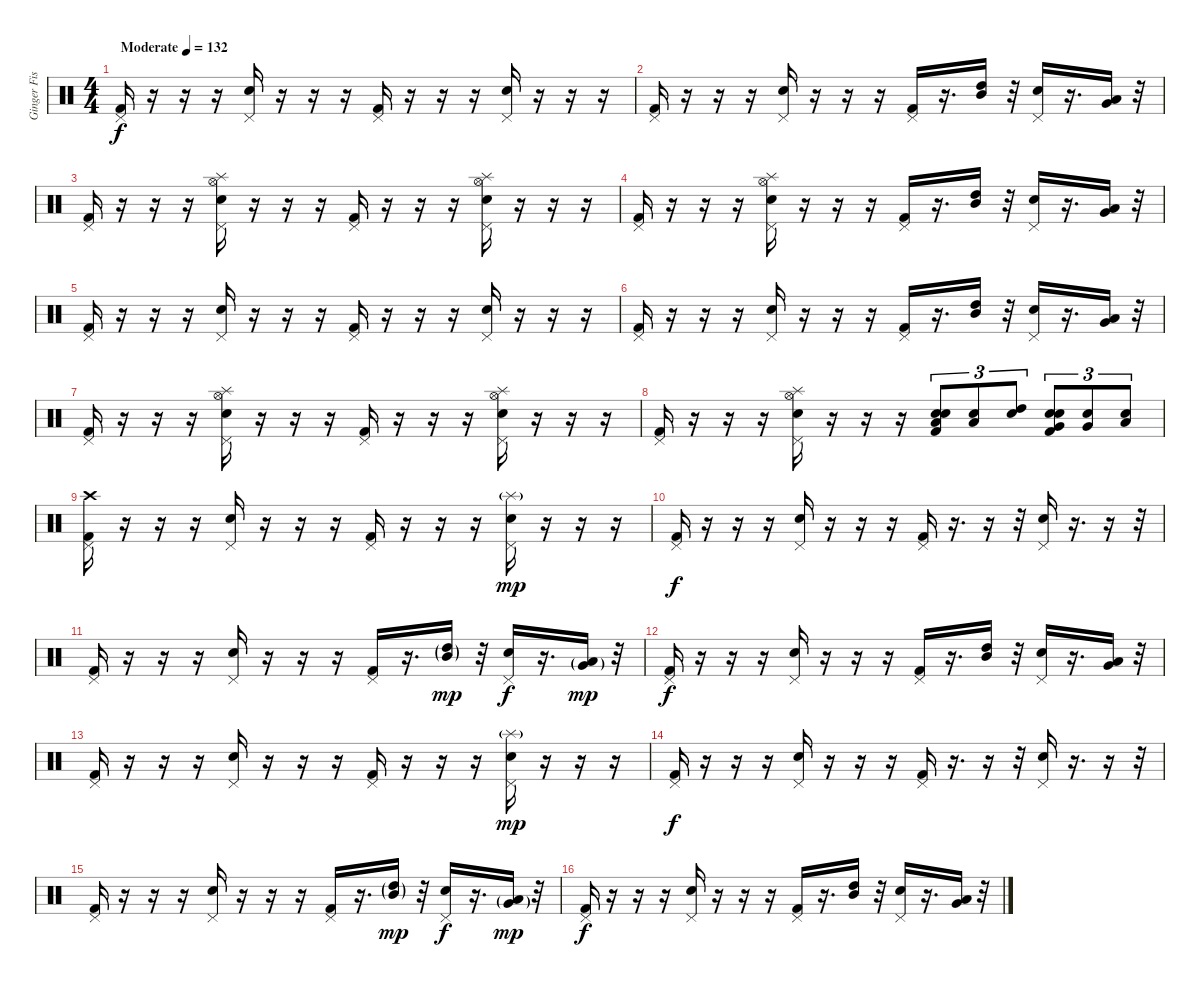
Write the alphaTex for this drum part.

\track ("Ginger Fish" "Ginger Fis") {instrument percussion}
\staff {score}
\articulation defaults
\ts (4 4)
\tempo (132 "Moderate")
\clef neutral
\ks c
("Pedal Hi-Hat (hit)" "Kick (hit) 2").16{dy f} r.16 r.16 r.16 ("Pedal Hi-Hat (hit)" "Snare (hit) 2").16 r.16 r.16 r.16 ("Pedal Hi-Hat (hit)" "Kick (hit) 2").16 r.16 r.16 r.16 ("Pedal Hi-Hat (hit)" "Snare (hit) 2").16 r.16 r.16 r.16 |
("Pedal Hi-Hat (hit)" "Kick (hit) 2").16 r.16 r.16 r.16 ("Pedal Hi-Hat (hit)" "Snare (hit) 2").16 r.16 r.16 r.16 ("Pedal Hi-Hat (hit)" "Kick (hit) 2").16 r.16{d} ("High Tom (hit)" "Mid Tom (hit)").16 r.32 ("Pedal Hi-Hat (hit)" "Snare (hit) 2").16 r.16{d} ("Very Low Tom (hit)" "Low Tom (hit)").16 r.32 |
("Pedal Hi-Hat (hit)" "Kick (hit) 2").16 r.16 r.16 r.16 ("Pedal Hi-Hat (hit)" "Splash (hit)" "Hi-Hat (open)" "Snare (hit) 2").16 r.16 r.16 r.16 ("Pedal Hi-Hat (hit)" "Kick (hit) 2").16 r.16 r.16 r.16 ("Pedal Hi-Hat (hit)" "Splash (hit)" "Hi-Hat (open)" "Snare (hit) 2").16 r.16 r.16 r.16 |
("Pedal Hi-Hat (hit)" "Kick (hit) 2").16 r.16 r.16 r.16 ("Pedal Hi-Hat (hit)" "Splash (hit)" "Hi-Hat (open)" "Snare (hit) 2").16 r.16 r.16 r.16 ("Pedal Hi-Hat (hit)" "Kick (hit) 2").16 r.16{d} ("High Tom (hit)" "Mid Tom (hit)").16 r.32 ("Pedal Hi-Hat (hit)" "Snare (hit) 2").16 r.16{d} ("Very Low Tom (hit)" "Low Tom (hit)").16 r.32 |
("Pedal Hi-Hat (hit)" "Kick (hit) 2").16 r.16 r.16 r.16 ("Pedal Hi-Hat (hit)" "Snare (hit) 2").16 r.16 r.16 r.16 ("Pedal Hi-Hat (hit)" "Kick (hit) 2").16 r.16 r.16 r.16 ("Pedal Hi-Hat (hit)" "Snare (hit) 2").16 r.16 r.16 r.16 |
("Pedal Hi-Hat (hit)" "Kick (hit) 2").16 r.16 r.16 r.16 ("Pedal Hi-Hat (hit)" "Snare (hit) 2").16 r.16 r.16 r.16 ("Pedal Hi-Hat (hit)" "Kick (hit) 2").16 r.16{d} ("High Tom (hit)" "Mid Tom (hit)").16 r.32 ("Pedal Hi-Hat (hit)" "Snare (hit) 2").16 r.16{d} ("Very Low Tom (hit)" "Low Tom (hit)").16 r.32 |
("Pedal Hi-Hat (hit)" "Kick (hit) 2").16 r.16 r.16 r.16 ("Pedal Hi-Hat (hit)" "Splash (hit)" "Hi-Hat (open)" "Snare (hit) 2").16 r.16 r.16 r.16 ("Pedal Hi-Hat (hit)" "Kick (hit) 2").16 r.16 r.16 r.16 ("Pedal Hi-Hat (hit)" "Splash (hit)" "Hi-Hat (open)" "Snare (hit) 2").16 r.16 r.16 r.16 |
("Pedal Hi-Hat (hit)" "Kick (hit) 2").16 r.16 r.16 r.16 ("Pedal Hi-Hat (hit)" "Splash (hit)" "Hi-Hat (open)" "Snare (hit) 2").16 r.16 r.16 r.16 ("Snare (hit) 2" "Low Tom (hit)" "Electric Snare (hit)" "Kick (hit) 2").8{tu (3 2)} ("Low Tom (hit)" "Electric Snare (hit)").8{tu (3 2)} ("High Tom (hit)" "Electric Snare (hit)").8{tu (3 2)} ("Snare (hit) 2" "Very Low Tom (hit)" "Electric Snare (hit)" "Kick (hit) 2").8{tu (3 2)} ("Very Low Tom (hit)" "Electric Snare (hit)").8{tu (3 2)} ("Low Floor Tom (hit)" "Electric Snare (hit)").8{tu (3 2)} |
("Pedal Hi-Hat (hit)" "Crash high (hit)" "Kick (hit) 2").16 r.16 r.16 r.16 ("Pedal Hi-Hat (hit)" "Snare (hit) 2").16 r.16 r.16 r.16 ("Pedal Hi-Hat (hit)" "Kick (hit) 2").16 r.16 r.16 r.16 ("Pedal Hi-Hat (hit)" "Splash (hit)"{g} "Snare (hit) 2").16{dy mp} r.16 r.16 r.16 |
("Pedal Hi-Hat (hit)" "Kick (hit) 2").16{dy f} r.16 r.16 r.16 ("Pedal Hi-Hat (hit)" "Snare (hit) 2").16 r.16 r.16 r.16 ("Pedal Hi-Hat (hit)" "Kick (hit) 2").16 r.16{d} r.16 r.32 ("Pedal Hi-Hat (hit)" "Snare (hit) 2").16 r.16{d} r.16 r.32 |
("Pedal Hi-Hat (hit)" "Kick (hit) 2").16 r.16 r.16 r.16 ("Pedal Hi-Hat (hit)" "Snare (hit) 2").16 r.16 r.16 r.16 ("Pedal Hi-Hat (hit)" "Kick (hit) 2").16 r.16{d} ("High Tom (hit)"{g} "Mid Tom (hit)"{g}).16{dy mp} r.32 ("Pedal Hi-Hat (hit)" "Snare (hit) 2").16{dy f} r.16{d} ("Very Low Tom (hit)"{g} "Low Tom (hit)"{g}).16{dy mp} r.32 |
("Pedal Hi-Hat (hit)" "Kick (hit) 2").16{dy f} r.16 r.16 r.16 ("Pedal Hi-Hat (hit)" "Snare (hit) 2").16 r.16 r.16 r.16 ("Pedal Hi-Hat (hit)" "Kick (hit) 2").16 r.16{d} ("High Tom (hit)" "Mid Tom (hit)").16 r.32 ("Pedal Hi-Hat (hit)" "Snare (hit) 2").16 r.16{d} ("Very Low Tom (hit)" "Low Tom (hit)").16 r.32 |
("Pedal Hi-Hat (hit)" "Kick (hit) 2").16 r.16 r.16 r.16 ("Pedal Hi-Hat (hit)" "Snare (hit) 2").16 r.16 r.16 r.16 ("Pedal Hi-Hat (hit)" "Kick (hit) 2").16 r.16 r.16 r.16 ("Pedal Hi-Hat (hit)" "Splash (hit)"{g} "Snare (hit) 2").16{dy mp} r.16 r.16 r.16 |
("Pedal Hi-Hat (hit)" "Kick (hit) 2").16{dy f} r.16 r.16 r.16 ("Pedal Hi-Hat (hit)" "Snare (hit) 2").16 r.16 r.16 r.16 ("Pedal Hi-Hat (hit)" "Kick (hit) 2").16 r.16{d} r.16 r.32 ("Pedal Hi-Hat (hit)" "Snare (hit) 2").16 r.16{d} r.16 r.32 |
("Pedal Hi-Hat (hit)" "Kick (hit) 2").16 r.16 r.16 r.16 ("Pedal Hi-Hat (hit)" "Snare (hit) 2").16 r.16 r.16 r.16 ("Pedal Hi-Hat (hit)" "Kick (hit) 2").16 r.16{d} ("High Tom (hit)"{g} "Mid Tom (hit)"{g}).16{dy mp} r.32 ("Pedal Hi-Hat (hit)" "Snare (hit) 2").16{dy f} r.16{d} ("Very Low Tom (hit)"{g} "Low Tom (hit)"{g}).16{dy mp} r.32 |
("Pedal Hi-Hat (hit)" "Kick (hit) 2").16{dy f} r.16 r.16 r.16 ("Pedal Hi-Hat (hit)" "Snare (hit) 2").16 r.16 r.16 r.16 ("Pedal Hi-Hat (hit)" "Kick (hit) 2").16 r.16{d} ("High Tom (hit)" "Mid Tom (hit)").16 r.32 ("Pedal Hi-Hat (hit)" "Snare (hit) 2").16 r.16{d} ("Very Low Tom (hit)" "Low Tom (hit)").16 r.32
